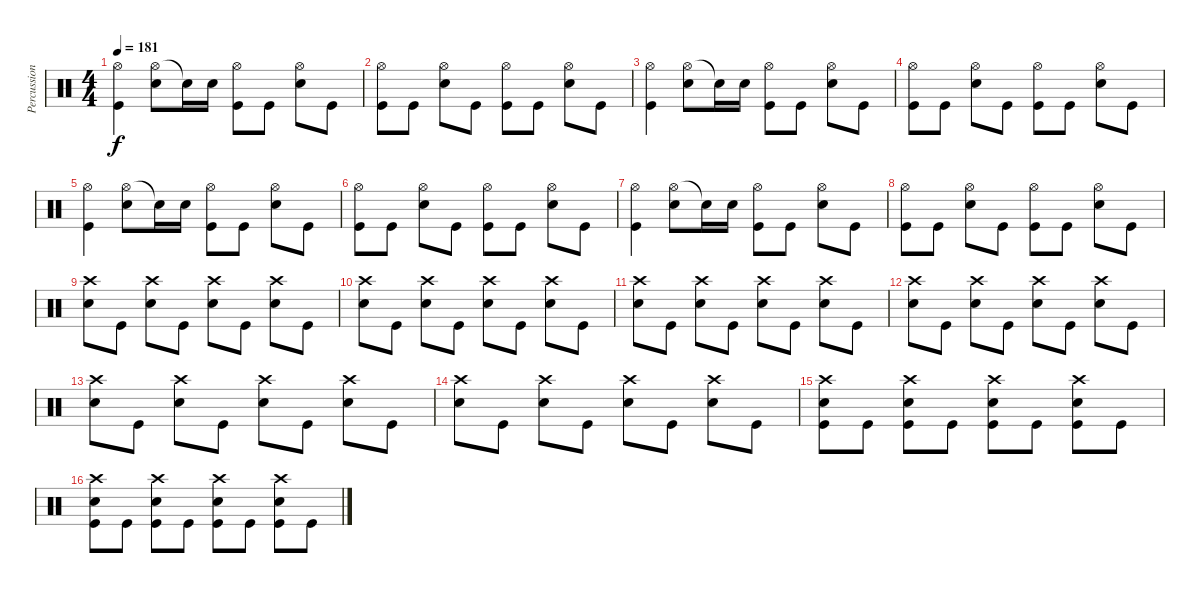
\track ("Percussion" "Percussion") {instrument percussion}
\staff {score}
\articulation defaults
\ts (4 4)
\tempo 181
\clef neutral
\ks c
("Hi-Hat (open)" "Kick (hit)").4{dy f} ("Hi-Hat (open)" "Electric Snare (hit)").8 "Electric Snare (hit)"{t}.16 "Electric Snare (hit)".16 ("Hi-Hat (open)" "Kick (hit)").8 "Kick (hit)".8 ("Hi-Hat (open)" "Electric Snare (hit)").8 "Kick (hit)".8 |
("Hi-Hat (open)" "Kick (hit)").8 "Kick (hit)".8 ("Hi-Hat (open)" "Electric Snare (hit)").8 "Kick (hit)".8 ("Hi-Hat (open)" "Kick (hit)").8 "Kick (hit)".8 ("Hi-Hat (open)" "Electric Snare (hit)").8 "Kick (hit)".8 |
("Hi-Hat (open)" "Kick (hit)").4 ("Hi-Hat (open)" "Electric Snare (hit)").8 "Electric Snare (hit)"{t}.16 "Electric Snare (hit)".16 ("Hi-Hat (open)" "Kick (hit)").8 "Kick (hit)".8 ("Hi-Hat (open)" "Electric Snare (hit)").8 "Kick (hit)".8 |
("Hi-Hat (open)" "Kick (hit)").8 "Kick (hit)".8 ("Hi-Hat (open)" "Electric Snare (hit)").8 "Kick (hit)".8 ("Hi-Hat (open)" "Kick (hit)").8 "Kick (hit)".8 ("Hi-Hat (open)" "Electric Snare (hit)").8 "Kick (hit)".8 |
("Hi-Hat (open)" "Kick (hit)").4 ("Hi-Hat (open)" "Electric Snare (hit)").8 "Electric Snare (hit)"{t}.16 "Electric Snare (hit)".16 ("Hi-Hat (open)" "Kick (hit)").8 "Kick (hit)".8 ("Hi-Hat (open)" "Electric Snare (hit)").8 "Kick (hit)".8 |
("Hi-Hat (open)" "Kick (hit)").8 "Kick (hit)".8 ("Hi-Hat (open)" "Electric Snare (hit)").8 "Kick (hit)".8 ("Hi-Hat (open)" "Kick (hit)").8 "Kick (hit)".8 ("Hi-Hat (open)" "Electric Snare (hit)").8 "Kick (hit)".8 |
("Hi-Hat (open)" "Kick (hit)").4 ("Hi-Hat (open)" "Electric Snare (hit)").8 "Electric Snare (hit)"{t}.16 "Electric Snare (hit)".16 ("Hi-Hat (open)" "Kick (hit)").8 "Kick (hit)".8 ("Hi-Hat (open)" "Electric Snare (hit)").8 "Kick (hit)".8 |
("Hi-Hat (open)" "Kick (hit)").8 "Kick (hit)".8 ("Hi-Hat (open)" "Electric Snare (hit)").8 "Kick (hit)".8 ("Hi-Hat (open)" "Kick (hit)").8 "Kick (hit)".8 ("Hi-Hat (open)" "Electric Snare (hit)").8 "Kick (hit)".8 |
("Crash high (hit)" "Electric Snare (hit)").8 "Kick (hit)".8 ("Crash high (hit)" "Electric Snare (hit)").8 "Kick (hit)".8 ("Crash high (hit)" "Electric Snare (hit)").8 "Kick (hit)".8 ("Crash high (hit)" "Electric Snare (hit)").8 "Kick (hit)".8 |
("Crash high (hit)" "Electric Snare (hit)").8 "Kick (hit)".8 ("Crash high (hit)" "Electric Snare (hit)").8 "Kick (hit)".8 ("Crash high (hit)" "Electric Snare (hit)").8 "Kick (hit)".8 ("Crash high (hit)" "Electric Snare (hit)").8 "Kick (hit)".8 |
("Crash high (hit)" "Electric Snare (hit)").8 "Kick (hit)".8 ("Crash high (hit)" "Electric Snare (hit)").8 "Kick (hit)".8 ("Crash high (hit)" "Electric Snare (hit)").8 "Kick (hit)".8 ("Crash high (hit)" "Electric Snare (hit)").8 "Kick (hit)".8 |
("Crash high (hit)" "Electric Snare (hit)").8 "Kick (hit)".8 ("Crash high (hit)" "Electric Snare (hit)").8 "Kick (hit)".8 ("Crash high (hit)" "Electric Snare (hit)").8 "Kick (hit)".8 ("Crash high (hit)" "Electric Snare (hit)").8 "Kick (hit)".8 |
("Crash high (hit)" "Electric Snare (hit)").8 "Kick (hit)".8 ("Crash high (hit)" "Electric Snare (hit)").8 "Kick (hit)".8 ("Crash high (hit)" "Electric Snare (hit)").8 "Kick (hit)".8 ("Crash high (hit)" "Electric Snare (hit)").8 "Kick (hit)".8 |
("Crash high (hit)" "Electric Snare (hit)").8 "Kick (hit)".8 ("Crash high (hit)" "Electric Snare (hit)").8 "Kick (hit)".8 ("Crash high (hit)" "Electric Snare (hit)").8 "Kick (hit)".8 ("Crash high (hit)" "Electric Snare (hit)").8 "Kick (hit)".8 |
("Crash high (hit)" "Electric Snare (hit)" "Kick (hit)").8 "Kick (hit)".8 ("Crash high (hit)" "Electric Snare (hit)" "Kick (hit)").8 "Kick (hit)".8 ("Crash high (hit)" "Electric Snare (hit)" "Kick (hit)").8 "Kick (hit)".8 ("Crash high (hit)" "Electric Snare (hit)" "Kick (hit)").8 "Kick (hit)".8 |
("Crash high (hit)" "Electric Snare (hit)" "Kick (hit)").8 "Kick (hit)".8 ("Crash high (hit)" "Electric Snare (hit)" "Kick (hit)").8 "Kick (hit)".8 ("Crash high (hit)" "Electric Snare (hit)" "Kick (hit)").8 "Kick (hit)".8 ("Crash high (hit)" "Electric Snare (hit)" "Kick (hit)").8 "Kick (hit)".8
